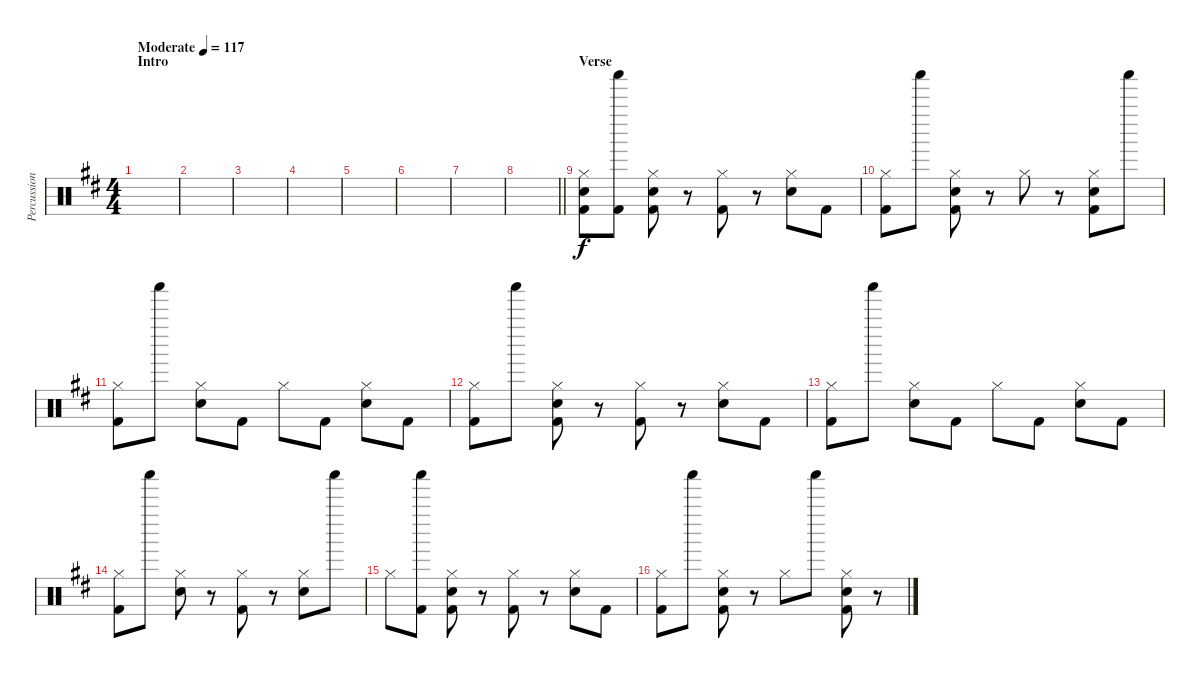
\track ("Percussion" "Percussion") {instrument percussion}
\staff {score}
\articulation defaults
\ts (4 4)
\section ("" "Intro")
\tempo (117 "Moderate")
\clef neutral
\ks d
|
|
|
|
|
|
|
\barLineRight lightlight
|
\section ("" "Verse")
("Hi-Hat (closed)" "Snare (hit) 2" "Kick (hit) 2").8 ("Shaker (hit)" "Kick (hit) 2").8 ("Hi-Hat (closed)" "Snare (hit) 2" "Kick (hit) 2").8 r.8 ("Hi-Hat (closed)" "Kick (hit) 2").8 r.8 ("Hi-Hat (closed)" "Snare (hit) 2").8 "Kick (hit) 2".8 |
("Hi-Hat (closed)" "Kick (hit) 2").8 "Shaker (hit)".8 ("Hi-Hat (closed)" "Snare (hit) 2" "Kick (hit) 2").8 r.8 "Hi-Hat (closed)".8 r.8 ("Hi-Hat (closed)" "Snare (hit) 2" "Kick (hit) 2").8 "Shaker (hit)".8 |
("Hi-Hat (closed)" "Kick (hit) 2").8 "Shaker (hit)".8 ("Hi-Hat (closed)" "Snare (hit) 2").8 "Kick (hit) 2".8 "Hi-Hat (closed)".8 "Kick (hit) 2".8 ("Hi-Hat (closed)" "Snare (hit) 2").8 "Kick (hit) 2".8 |
("Hi-Hat (closed)" "Kick (hit) 2").8 "Shaker (hit)".8 ("Hi-Hat (closed)" "Snare (hit) 2" "Kick (hit) 2").8 r.8 ("Hi-Hat (closed)" "Kick (hit) 2").8 r.8 ("Hi-Hat (closed)" "Snare (hit) 2").8 "Kick (hit) 2".8 |
("Hi-Hat (closed)" "Kick (hit) 2").8 "Shaker (hit)".8 ("Hi-Hat (closed)" "Snare (hit) 2").8 "Kick (hit) 2".8 "Hi-Hat (closed)".8 "Kick (hit) 2".8 ("Hi-Hat (closed)" "Snare (hit) 2").8 "Kick (hit) 2".8 |
("Hi-Hat (closed)" "Kick (hit) 2").8 "Shaker (hit)".8 ("Hi-Hat (closed)" "Snare (hit) 2").8 r.8 ("Hi-Hat (closed)" "Kick (hit) 2").8 r.8 ("Hi-Hat (closed)" "Snare (hit) 2").8 "Shaker (hit)".8 |
"Hi-Hat (closed)".8 ("Shaker (hit)" "Kick (hit) 2").8 ("Hi-Hat (closed)" "Snare (hit) 2" "Kick (hit) 2").8 r.8 ("Hi-Hat (closed)" "Kick (hit) 2").8 r.8 ("Hi-Hat (closed)" "Snare (hit) 2").8 "Kick (hit) 2".8 |
("Hi-Hat (closed)" "Kick (hit) 2").8 "Shaker (hit)".8 ("Hi-Hat (closed)" "Snare (hit) 2" "Kick (hit) 2").8 r.8 "Hi-Hat (closed)".8 "Shaker (hit)".8 ("Hi-Hat (closed)" "Snare (hit) 2" "Kick (hit) 2").8 r.8
